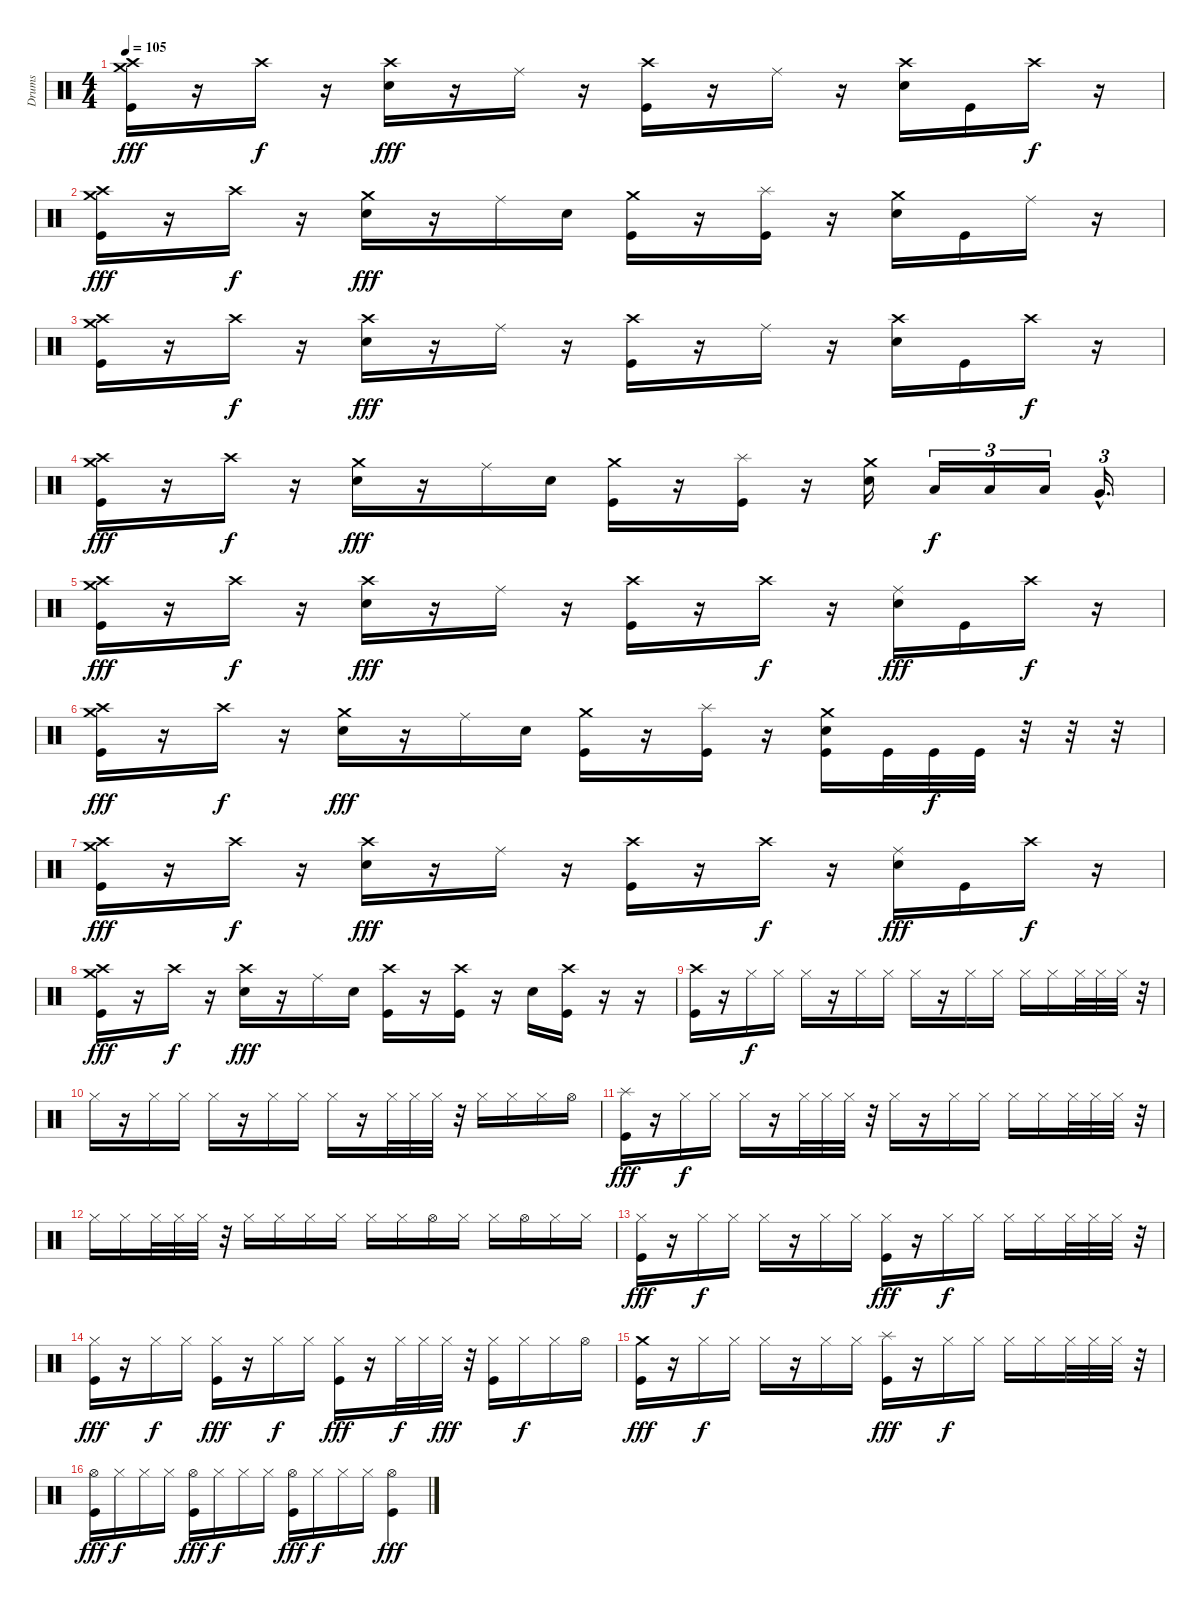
\track ("Drums" "Drums") {instrument percussion}
\staff {score}
\articulation defaults
\ts (4 4)
\tempo 105
\clef neutral
\ks c
("Crash medium (hit)" "Kick (hit)" "Crash high (hit)").16{dy fff} r.16 "Crash high (hit)".16{dy f} r.16 ("Crash high (hit)" "Electric Snare (hit)").16{dy fff} r.16 "Ride (middle)".16 r.16 ("Crash high (hit)" "Kick (hit)").16 r.16 "Ride (middle)".16 r.16 ("Crash high (hit)" "Electric Snare (hit)").16 "Kick (hit)".16 "Crash high (hit)".16{dy f} r.16 |
("Crash medium (hit)" "Kick (hit)" "Crash high (hit)").16{dy fff} r.16 "Crash high (hit)".16{dy f} r.16 ("Crash medium (hit)" "Electric Snare (hit)").16{dy fff} r.16 "Ride (middle)".16 "Electric Snare (hit)".16 ("Crash medium (hit)" "Kick (hit)").16 r.16 ("Splash (hit)" "Kick (hit)").16 r.16 ("Crash medium (hit)" "Electric Snare (hit)").16 "Kick (hit)".16 "Ride (middle)".16 r.16 |
("Crash medium (hit)" "Kick (hit)" "Crash high (hit)").16 r.16 "Crash high (hit)".16{dy f} r.16 ("Crash high (hit)" "Electric Snare (hit)").16{dy fff} r.16 "Ride (middle)".16 r.16 ("Crash high (hit)" "Kick (hit)").16 r.16 "Ride (middle)".16 r.16 ("Crash high (hit)" "Electric Snare (hit)").16 "Kick (hit)".16 "Crash high (hit)".16{dy f} r.16 |
("Crash medium (hit)" "Kick (hit)" "Crash high (hit)").16{dy fff} r.16 "Crash high (hit)".16{dy f} r.16 ("Crash medium (hit)" "Electric Snare (hit)").16{dy fff} r.16 "Ride (middle)".16 "Electric Snare (hit)".16 ("Crash medium (hit)" "Kick (hit)").16 r.16 ("Splash (hit)" "Kick (hit)").16 r.16 ("Crash medium (hit)" "Electric Snare (hit)").16 "Low Tom (hit)".16{tu (3 2) dy f} "Low Tom (hit)".16{tu (3 2)} "Low Tom (hit)".16{tu (3 2)} "Very Low Tom (hit)"{hac}.16{d tu (3 2)} |
("Crash medium (hit)" "Kick (hit)" "Crash high (hit)").16{dy fff} r.16 "Crash high (hit)".16{dy f} r.16 ("Crash high (hit)" "Electric Snare (hit)").16{dy fff} r.16 "Ride (middle)".16 r.16 ("Crash high (hit)" "Kick (hit)").16 r.16 "Crash high (hit)".16{dy f} r.16 ("Ride (middle)" "Electric Snare (hit)").16{dy fff} "Kick (hit)".16 "Crash high (hit)".16{dy f} r.16 |
("Crash medium (hit)" "Kick (hit)" "Crash high (hit)").16{dy fff} r.16 "Crash high (hit)".16{dy f} r.16 ("Crash medium (hit)" "Electric Snare (hit)").16{dy fff} r.16 "Ride (middle)".16 "Electric Snare (hit)".16 ("Crash medium (hit)" "Kick (hit)").16 r.16 ("Splash (hit)" "Kick (hit)").16 r.16 ("Crash medium (hit)" "Electric Snare (hit)" "Kick (hit)").16 "Kick (hit)".32 "Kick (hit)".32{dy f} "Kick (hit)".32 r.32 r.32 r.32 |
("Crash medium (hit)" "Kick (hit)" "Crash high (hit)").16{dy fff} r.16 "Crash high (hit)".16{dy f} r.16 ("Crash high (hit)" "Electric Snare (hit)").16{dy fff} r.16 "Ride (middle)".16 r.16 ("Crash high (hit)" "Kick (hit)").16 r.16 "Crash high (hit)".16{dy f} r.16 ("Ride (middle)" "Electric Snare (hit)").16{dy fff} "Kick (hit)".16 "Crash high (hit)".16{dy f} r.16 |
("Crash medium (hit)" "Kick (hit)" "Crash high (hit)").16{dy fff} r.16 "Crash high (hit)".16{dy f} r.16 ("Crash high (hit)" "Electric Snare (hit)").16{dy fff} r.16 "Ride (middle)".16 "Electric Snare (hit)".16 ("Crash high (hit)" "Kick (hit)").16 r.16 ("Crash high (hit)" "Kick (hit)").16 r.16 "Electric Snare (hit)".16 ("Crash high (hit)" "Kick (hit)").16 r.16 r.16 |
("Crash high (hit)" "Kick (hit)").16 r.16 "Hi-Hat (closed)".16{dy f} "Hi-Hat (closed)".16 "Hi-Hat (closed)".16 r.16 "Hi-Hat (closed)".16 "Hi-Hat (closed)".16 "Hi-Hat (closed)".16 r.16 "Hi-Hat (closed)".16 "Hi-Hat (closed)".16 "Hi-Hat (closed)".16 "Hi-Hat (closed)".16 "Hi-Hat (closed)".32 "Hi-Hat (closed)".32 "Hi-Hat (closed)".32 r.32 |
"Hi-Hat (closed)".16 r.16 "Hi-Hat (closed)".16 "Hi-Hat (closed)".16 "Hi-Hat (closed)".16 r.16 "Hi-Hat (closed)".16 "Hi-Hat (closed)".16 "Hi-Hat (closed)".16 r.16 "Hi-Hat (closed)".32 "Hi-Hat (closed)".32 "Hi-Hat (closed)".32 r.32 "Hi-Hat (closed)".16 "Hi-Hat (closed)".16 "Hi-Hat (closed)".16 "Hi-Hat (open)".16 |
("Splash (hit)" "Kick (hit)").16{dy fff} r.16 "Hi-Hat (closed)".16{dy f} "Hi-Hat (closed)".16 "Hi-Hat (closed)".16 r.16 "Hi-Hat (closed)".32 "Hi-Hat (closed)".32 "Hi-Hat (closed)".32 r.32 "Hi-Hat (closed)".16 r.16 "Hi-Hat (closed)".16 "Hi-Hat (closed)".16 "Hi-Hat (closed)".16 "Hi-Hat (closed)".16 "Hi-Hat (closed)".32 "Hi-Hat (closed)".32 "Hi-Hat (closed)".32 r.32 |
"Hi-Hat (closed)".16 "Hi-Hat (closed)".16 "Hi-Hat (closed)".32 "Hi-Hat (closed)".32 "Hi-Hat (closed)".32 r.32 "Hi-Hat (closed)".16 "Hi-Hat (closed)".16 "Hi-Hat (closed)".16 "Hi-Hat (closed)".16 "Hi-Hat (closed)".16 "Hi-Hat (closed)".16 "Hi-Hat (open)".16 "Hi-Hat (closed)".16 "Hi-Hat (closed)".16 "Hi-Hat (open)".16 "Hi-Hat (closed)".16 "Hi-Hat (closed)".16 |
("Hi-Hat (closed)" "Kick (hit)").16{dy fff} r.16 "Hi-Hat (closed)".16{dy f} "Hi-Hat (closed)".16 "Hi-Hat (closed)".16 r.16 "Hi-Hat (closed)".16 "Hi-Hat (closed)".16 ("Hi-Hat (closed)" "Kick (hit)").16{dy fff} r.16 "Hi-Hat (closed)".16{dy f} "Hi-Hat (closed)".16 "Hi-Hat (closed)".16 "Hi-Hat (closed)".16 "Hi-Hat (closed)".32 "Hi-Hat (closed)".32 "Hi-Hat (closed)".32 r.32 |
("Hi-Hat (closed)" "Kick (hit)").16{dy fff} r.16 "Hi-Hat (closed)".16{dy f} "Hi-Hat (closed)".16 ("Hi-Hat (closed)" "Kick (hit)").16{dy fff} r.16 "Hi-Hat (closed)".16{dy f} "Hi-Hat (closed)".16 ("Hi-Hat (closed)" "Kick (hit)").16{dy fff} r.16 "Hi-Hat (closed)".32{dy f} "Hi-Hat (closed)".32 "Hi-Hat (closed)".32{dy fff} r.32 ("Hi-Hat (closed)" "Kick (hit)").16 "Hi-Hat (closed)".16{dy f} "Hi-Hat (closed)".16 "Hi-Hat (open)".16 |
("Crash medium (hit)" "Kick (hit)").16{dy fff} r.16 "Hi-Hat (closed)".16{dy f} "Hi-Hat (closed)".16 "Hi-Hat (closed)".16 r.16 "Hi-Hat (closed)".16 "Hi-Hat (closed)".16 ("Splash (hit)" "Kick (hit)").16{dy fff} r.16 "Hi-Hat (closed)".16{dy f} "Hi-Hat (closed)".16 "Hi-Hat (closed)".16 "Hi-Hat (closed)".16 "Hi-Hat (closed)".32 "Hi-Hat (closed)".32 "Hi-Hat (closed)".32 r.32 |
("Hi-Hat (open)" "Kick (hit)").16{dy fff} "Hi-Hat (closed)".16{dy f} "Hi-Hat (closed)".16 "Hi-Hat (closed)".16 ("Hi-Hat (open)" "Kick (hit)").16{dy fff} "Hi-Hat (closed)".16{dy f} "Hi-Hat (closed)".16 "Hi-Hat (closed)".16 ("Hi-Hat (open)" "Kick (hit)").16{dy fff} "Hi-Hat (closed)".16{dy f} "Hi-Hat (closed)".16 "Hi-Hat (closed)".16 ("Hi-Hat (open)" "Kick (hit)").4{dy fff}
